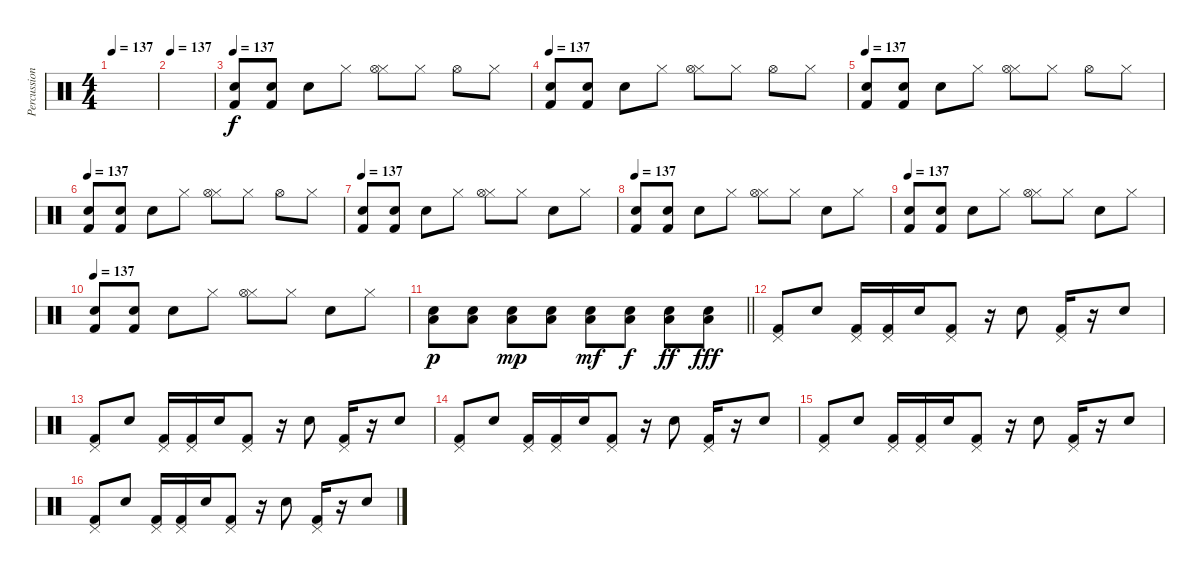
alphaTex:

\track ("Percussion" "Percussion") {instrument percussion}
\staff {score}
\articulation defaults
\ts (4 4)
\tempo 137
\clef neutral
\ks c
|
\tempo 137
|
\tempo 137
("Snare (hit) 2" "Kick (hit) 2").8{dy f} ("Snare (hit) 2" "Kick (hit) 2").8 "Electric Snare (hit)".8 "Hi-Hat (closed)".8 ("Hi-Hat (closed)" "Hi-Hat (open)").8 "Hi-Hat (closed)".8 "Hi-Hat (open)".8 "Hi-Hat (closed)".8 |
\tempo 137
("Snare (hit) 2" "Kick (hit) 2").8 ("Snare (hit) 2" "Kick (hit) 2").8 "Electric Snare (hit)".8 "Hi-Hat (closed)".8 ("Hi-Hat (closed)" "Hi-Hat (open)").8 "Hi-Hat (closed)".8 "Hi-Hat (open)".8 "Hi-Hat (closed)".8 |
\tempo 137
("Snare (hit) 2" "Kick (hit) 2").8 ("Snare (hit) 2" "Kick (hit) 2").8 "Electric Snare (hit)".8 "Hi-Hat (closed)".8 ("Hi-Hat (closed)" "Hi-Hat (open)").8 "Hi-Hat (closed)".8 "Hi-Hat (open)".8 "Hi-Hat (closed)".8 |
\tempo 137
("Snare (hit) 2" "Kick (hit) 2").8 ("Snare (hit) 2" "Kick (hit) 2").8 "Electric Snare (hit)".8 "Hi-Hat (closed)".8 ("Hi-Hat (closed)" "Hi-Hat (open)").8 "Hi-Hat (closed)".8 "Hi-Hat (open)".8 "Hi-Hat (closed)".8 |
\tempo 137
("Snare (hit) 2" "Kick (hit) 2").8 ("Snare (hit) 2" "Kick (hit) 2").8 "Electric Snare (hit)".8 "Hi-Hat (closed)".8 ("Hi-Hat (closed)" "Hi-Hat (open)").8 "Hi-Hat (closed)".8 "Electric Snare (hit)".8 "Hi-Hat (closed)".8 |
\tempo 137
("Snare (hit) 2" "Kick (hit) 2").8 ("Snare (hit) 2" "Kick (hit) 2").8 "Electric Snare (hit)".8 "Hi-Hat (closed)".8 ("Hi-Hat (closed)" "Hi-Hat (open)").8 "Hi-Hat (closed)".8 "Electric Snare (hit)".8 "Hi-Hat (closed)".8 |
\tempo 137
("Snare (hit) 2" "Kick (hit) 2").8 ("Snare (hit) 2" "Kick (hit) 2").8 "Electric Snare (hit)".8 "Hi-Hat (closed)".8 ("Hi-Hat (closed)" "Hi-Hat (open)").8 "Hi-Hat (closed)".8 "Electric Snare (hit)".8 "Hi-Hat (closed)".8 |
\tempo 137
("Snare (hit) 2" "Kick (hit) 2").8 ("Snare (hit) 2" "Kick (hit) 2").8 "Electric Snare (hit)".8 "Hi-Hat (closed)".8 ("Hi-Hat (closed)" "Hi-Hat (open)").8 "Hi-Hat (closed)".8 "Electric Snare (hit)".8 "Hi-Hat (closed)".8 |
\barLineRight lightlight
("Electric Snare (hit)" "Low Floor Tom (hit)").8{dy p} ("Electric Snare (hit)" "Low Floor Tom (hit)").8 ("Electric Snare (hit)" "Low Floor Tom (hit)").8{dy mp} ("Electric Snare (hit)" "Low Floor Tom (hit)").8 ("Electric Snare (hit)" "Low Floor Tom (hit)").8{dy mf} ("Electric Snare (hit)" "Low Floor Tom (hit)").8{dy f} ("Electric Snare (hit)" "Low Floor Tom (hit)").8{dy ff} ("Electric Snare (hit)" "Low Floor Tom (hit)").8{dy fff} |
("Pedal Hi-Hat (hit)" "Kick (hit) 2").8 "Snare (hit) 2".8 ("Pedal Hi-Hat (hit)" "Kick (hit) 2").16 ("Pedal Hi-Hat (hit)" "Kick (hit) 2").16 "Snare (hit) 2".16 ("Pedal Hi-Hat (hit)" "Kick (hit) 2").8 r.16 "Snare (hit) 2".8 ("Pedal Hi-Hat (hit)" "Kick (hit) 2").16 r.16 "Snare (hit) 2".8 |
("Pedal Hi-Hat (hit)" "Kick (hit) 2").8 "Snare (hit) 2".8 ("Pedal Hi-Hat (hit)" "Kick (hit) 2").16 ("Pedal Hi-Hat (hit)" "Kick (hit) 2").16 "Snare (hit) 2".16 ("Pedal Hi-Hat (hit)" "Kick (hit) 2").8 r.16 "Snare (hit) 2".8 ("Pedal Hi-Hat (hit)" "Kick (hit) 2").16 r.16 "Snare (hit) 2".8 |
("Pedal Hi-Hat (hit)" "Kick (hit) 2").8 "Snare (hit) 2".8 ("Pedal Hi-Hat (hit)" "Kick (hit) 2").16 ("Pedal Hi-Hat (hit)" "Kick (hit) 2").16 "Snare (hit) 2".16 ("Pedal Hi-Hat (hit)" "Kick (hit) 2").8 r.16 "Snare (hit) 2".8 ("Pedal Hi-Hat (hit)" "Kick (hit) 2").16 r.16 "Snare (hit) 2".8 |
("Pedal Hi-Hat (hit)" "Kick (hit) 2").8 "Snare (hit) 2".8 ("Pedal Hi-Hat (hit)" "Kick (hit) 2").16 ("Pedal Hi-Hat (hit)" "Kick (hit) 2").16 "Snare (hit) 2".16 ("Pedal Hi-Hat (hit)" "Kick (hit) 2").8 r.16 "Snare (hit) 2".8 ("Pedal Hi-Hat (hit)" "Kick (hit) 2").16 r.16 "Snare (hit) 2".8 |
("Pedal Hi-Hat (hit)" "Kick (hit) 2").8 "Snare (hit) 2".8 ("Pedal Hi-Hat (hit)" "Kick (hit) 2").16 ("Pedal Hi-Hat (hit)" "Kick (hit) 2").16 "Snare (hit) 2".16 ("Pedal Hi-Hat (hit)" "Kick (hit) 2").8 r.16 "Snare (hit) 2".8 ("Pedal Hi-Hat (hit)" "Kick (hit) 2").16 r.16 "Snare (hit) 2".8
